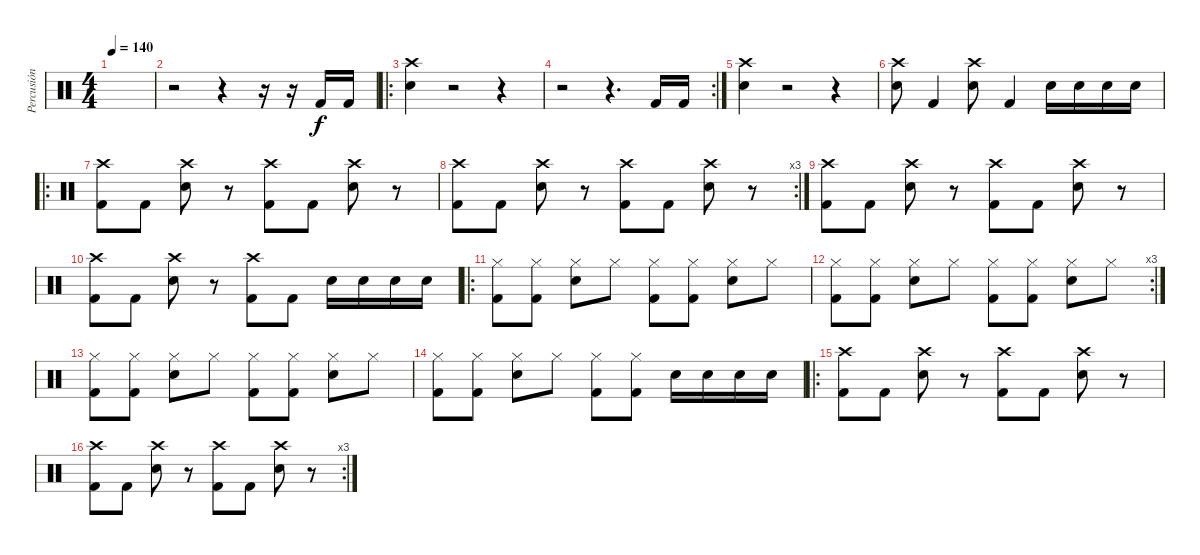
\track ("Percusión" "Percusión") {instrument percussion}
\staff {score}
\articulation defaults
\ts (4 4)
\tempo 140
\clef neutral
\ks c
|
r.2 r.4 r.16 r.16 "Kick (hit) 2".16 "Kick (hit) 2".16 |
\ro
("Crash high (hit)" "Electric Snare (hit)").4 r.2 r.4 |
\rc 2
r.2 r.4{d} "Kick (hit) 2".16 "Kick (hit) 2".16 |
("Crash high (hit)" "Electric Snare (hit)").4 r.2 r.4 |
("Crash high (hit)" "Electric Snare (hit)").8 "Kick (hit) 2".4 ("Crash high (hit)" "Electric Snare (hit)").8 "Kick (hit) 2".4 "Electric Snare (hit)".16 "Electric Snare (hit)".16 "Electric Snare (hit)".16 "Electric Snare (hit)".16 |
\ro
("Crash high (hit)" "Kick (hit) 2").8 "Kick (hit) 2".8 ("Crash high (hit)" "Electric Snare (hit)").8 r.8 ("Crash high (hit)" "Kick (hit) 2").8 "Kick (hit) 2".8 ("Crash high (hit)" "Electric Snare (hit)").8 r.8 |
\rc 3
("Crash high (hit)" "Kick (hit) 2").8 "Kick (hit) 2".8 ("Crash high (hit)" "Electric Snare (hit)").8 r.8 ("Crash high (hit)" "Kick (hit) 2").8 "Kick (hit) 2".8 ("Crash high (hit)" "Electric Snare (hit)").8 r.8 |
("Crash high (hit)" "Kick (hit) 2").8 "Kick (hit) 2".8 ("Crash high (hit)" "Electric Snare (hit)").8 r.8 ("Crash high (hit)" "Kick (hit) 2").8 "Kick (hit) 2".8 ("Crash high (hit)" "Electric Snare (hit)").8 r.8 |
("Crash high (hit)" "Kick (hit) 2").8 "Kick (hit) 2".8 ("Crash high (hit)" "Electric Snare (hit)").8 r.8 ("Crash high (hit)" "Kick (hit) 2").8 "Kick (hit) 2".8 "Electric Snare (hit)".16 "Electric Snare (hit)".16 "Electric Snare (hit)".16 "Electric Snare (hit)".16 |
\ro
("Hi-Hat (closed)" "Kick (hit) 2").8 ("Hi-Hat (closed)" "Kick (hit) 2").8 ("Hi-Hat (closed)" "Electric Snare (hit)").8 "Hi-Hat (closed)".8 ("Hi-Hat (closed)" "Kick (hit) 2").8 ("Hi-Hat (closed)" "Kick (hit) 2").8 ("Hi-Hat (closed)" "Electric Snare (hit)").8 "Hi-Hat (closed)".8 |
\rc 3
("Hi-Hat (closed)" "Kick (hit) 2").8 ("Hi-Hat (closed)" "Kick (hit) 2").8 ("Hi-Hat (closed)" "Electric Snare (hit)").8 "Hi-Hat (closed)".8 ("Hi-Hat (closed)" "Kick (hit) 2").8 ("Hi-Hat (closed)" "Kick (hit) 2").8 ("Hi-Hat (closed)" "Electric Snare (hit)").8 "Hi-Hat (closed)".8 |
("Hi-Hat (closed)" "Kick (hit) 2").8 ("Hi-Hat (closed)" "Kick (hit) 2").8 ("Hi-Hat (closed)" "Electric Snare (hit)").8 "Hi-Hat (closed)".8 ("Hi-Hat (closed)" "Kick (hit) 2").8 ("Hi-Hat (closed)" "Kick (hit) 2").8 ("Hi-Hat (closed)" "Electric Snare (hit)").8 "Hi-Hat (closed)".8 |
("Hi-Hat (closed)" "Kick (hit) 2").8 ("Hi-Hat (closed)" "Kick (hit) 2").8 ("Hi-Hat (closed)" "Electric Snare (hit)").8 "Hi-Hat (closed)".8 ("Hi-Hat (closed)" "Kick (hit) 2").8 ("Hi-Hat (closed)" "Kick (hit) 2").8 "Electric Snare (hit)".16 "Electric Snare (hit)".16 "Electric Snare (hit)".16 "Electric Snare (hit)".16 |
\ro
("Crash high (hit)" "Kick (hit) 2").8 "Kick (hit) 2".8 ("Crash high (hit)" "Electric Snare (hit)").8 r.8 ("Crash high (hit)" "Kick (hit) 2").8 "Kick (hit) 2".8 ("Crash high (hit)" "Electric Snare (hit)").8 r.8 |
\rc 3
("Crash high (hit)" "Kick (hit) 2").8 "Kick (hit) 2".8 ("Crash high (hit)" "Electric Snare (hit)").8 r.8 ("Crash high (hit)" "Kick (hit) 2").8 "Kick (hit) 2".8 ("Crash high (hit)" "Electric Snare (hit)").8 r.8
